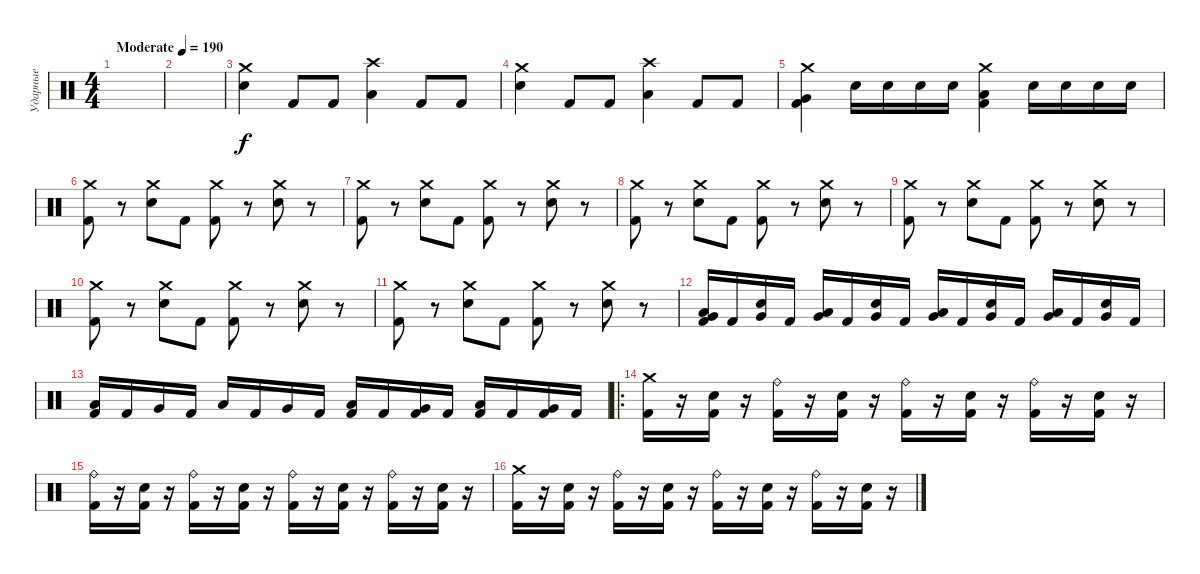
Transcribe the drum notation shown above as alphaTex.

\track ("Ударные" "Ударные") {instrument percussion}
\staff {score}
\articulation defaults
\ts (4 4)
\tempo (190 "Moderate")
\clef neutral
\ks c
|
|
("Crash medium (hit)" "Snare (hit) 2").4 "Kick (hit) 2".8 "Kick (hit) 2".8 ("Crash high (hit)" "Low Tom (hit)").4 "Kick (hit) 2".8 "Kick (hit) 2".8 |
("Crash medium (hit)" "Snare (hit) 2").4 "Kick (hit) 2".8 "Kick (hit) 2".8 ("Crash high (hit)" "Low Tom (hit)").4 "Kick (hit) 2".8 "Kick (hit) 2".8 |
("Crash medium (hit)" "Very Low Tom (hit)" "Kick (hit) 2").4 "Snare (hit) 2".16 "Snare (hit) 2".16 "Snare (hit) 2".16 "Snare (hit) 2".16 ("Crash medium (hit)" "Low Tom (hit)" "Kick (hit) 2").4 "Snare (hit) 2".16 "Snare (hit) 2".16 "Snare (hit) 2".16 "Snare (hit) 2".16 |
("Crash medium (hit)" "Kick (hit) 2").8 r.8 ("Crash medium (hit)" "Snare (hit) 2").8 "Kick (hit) 2".8 ("Crash medium (hit)" "Kick (hit) 2").8 r.8 ("Crash medium (hit)" "Snare (hit) 2").8 r.8 |
("Crash medium (hit)" "Kick (hit) 2").8 r.8 ("Crash medium (hit)" "Snare (hit) 2").8 "Kick (hit) 2".8 ("Crash medium (hit)" "Kick (hit) 2").8 r.8 ("Crash medium (hit)" "Snare (hit) 2").8 r.8 |
("Crash medium (hit)" "Kick (hit) 2").8 r.8 ("Crash medium (hit)" "Snare (hit) 2").8 "Kick (hit) 2".8 ("Crash medium (hit)" "Kick (hit) 2").8 r.8 ("Crash medium (hit)" "Snare (hit) 2").8 r.8 |
("Crash medium (hit)" "Kick (hit) 2").8 r.8 ("Crash medium (hit)" "Snare (hit) 2").8 "Kick (hit) 2".8 ("Crash medium (hit)" "Kick (hit) 2").8 r.8 ("Crash medium (hit)" "Snare (hit) 2").8 r.8 |
("Crash medium (hit)" "Kick (hit) 2").8 r.8 ("Crash medium (hit)" "Snare (hit) 2").8 "Kick (hit) 2".8 ("Crash medium (hit)" "Kick (hit) 2").8 r.8 ("Crash medium (hit)" "Snare (hit) 2").8 r.8 |
("Crash medium (hit)" "Kick (hit) 2").8 r.8 ("Crash medium (hit)" "Snare (hit) 2").8 "Kick (hit) 2".8 ("Crash medium (hit)" "Kick (hit) 2").8 r.8 ("Crash medium (hit)" "Snare (hit) 2").8 r.8 |
("Low Tom (hit)" "Very Low Tom (hit)" "Kick (hit) 2").16 "Kick (hit) 2".16 ("Snare (hit) 2" "Very Low Tom (hit)").16 "Kick (hit) 2".16 ("Low Tom (hit)" "Very Low Tom (hit)").16 "Kick (hit) 2".16 ("Snare (hit) 2" "Very Low Tom (hit)").16 "Kick (hit) 2".16 ("Low Tom (hit)" "Very Low Tom (hit)").16 "Kick (hit) 2".16 ("Snare (hit) 2" "Very Low Tom (hit)").16 "Kick (hit) 2".16 ("Low Tom (hit)" "Very Low Tom (hit)").16 "Kick (hit) 2".16 ("Snare (hit) 2" "Very Low Tom (hit)").16 "Kick (hit) 2".16 |
("Low Tom (hit)" "Kick (hit) 2").16 "Kick (hit) 2".16 "Very Low Tom (hit)".16 "Kick (hit) 2".16 "Low Tom (hit)".16 "Kick (hit) 2".16 "Very Low Tom (hit)".16 "Kick (hit) 2".16 ("Low Tom (hit)" "Kick (hit) 2").16 "Kick (hit) 2".16 ("Very Low Tom (hit)" "Kick (hit) 2").16 "Kick (hit) 2".16 ("Low Tom (hit)" "Kick (hit) 2").16 "Kick (hit) 2".16 ("Very Low Tom (hit)" "Kick (hit) 2").16 "Kick (hit) 2".16 |
\ro
("Crash medium (hit)" "Kick (hit) 2").16 r.16 ("Snare (hit) 2" "Kick (hit) 2").16 r.16 ("Ride (bell)" "Kick (hit) 2").16 r.16 ("Snare (hit) 2" "Kick (hit) 2").16 r.16 ("Ride (bell)" "Kick (hit) 2").16 r.16 ("Snare (hit) 2" "Kick (hit) 2").16 r.16 ("Ride (bell)" "Kick (hit) 2").16 r.16 ("Snare (hit) 2" "Kick (hit) 2").16 r.16 |
("Ride (bell)" "Kick (hit) 2").16 r.16 ("Snare (hit) 2" "Kick (hit) 2").16 r.16 ("Ride (bell)" "Kick (hit) 2").16 r.16 ("Snare (hit) 2" "Kick (hit) 2").16 r.16 ("Ride (bell)" "Kick (hit) 2").16 r.16 ("Snare (hit) 2" "Kick (hit) 2").16 r.16 ("Ride (bell)" "Kick (hit) 2").16 r.16 ("Snare (hit) 2" "Kick (hit) 2").16 r.16 |
("Crash medium (hit)" "Kick (hit) 2").16 r.16 ("Snare (hit) 2" "Kick (hit) 2").16 r.16 ("Ride (bell)" "Kick (hit) 2").16 r.16 ("Snare (hit) 2" "Kick (hit) 2").16 r.16 ("Ride (bell)" "Kick (hit) 2").16 r.16 ("Snare (hit) 2" "Kick (hit) 2").16 r.16 ("Ride (bell)" "Kick (hit) 2").16 r.16 ("Snare (hit) 2" "Kick (hit) 2").16 r.16
